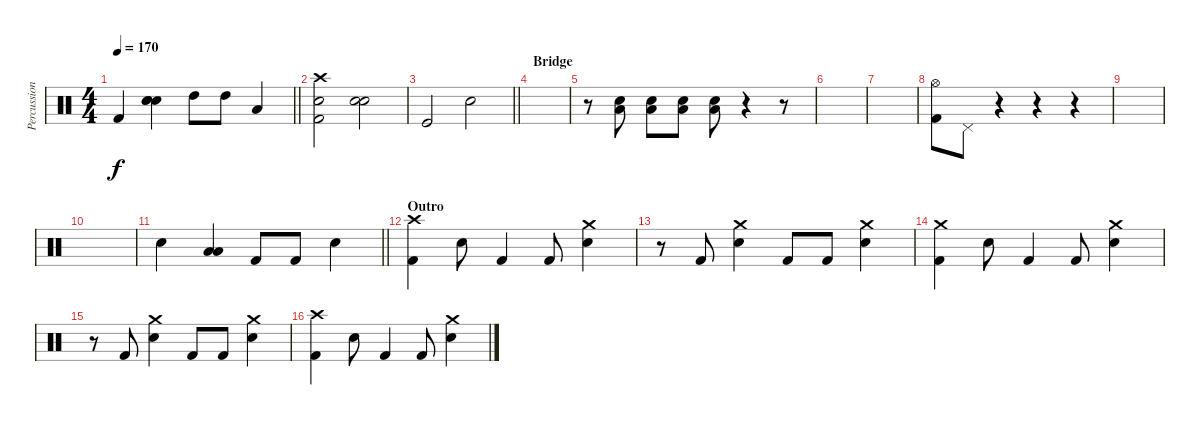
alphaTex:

\track ("Percussion" "Percussion") {instrument percussion}
\staff {score}
\articulation defaults
\ts (4 4)
\tempo 170
\clef neutral
\barLineRight lightlight
\ks c "Kick (hit) 2".4{dy f}
("Snare (hit) 2" "Snare (hit) 2" "Snare (hit) 2").4 "High Tom (hit)".8 "High Tom (hit)".8 "Low Tom (hit)".4 |
("Snare (hit) 2" "Crash high (hit)" "Kick (hit) 2").2 ("Snare (hit) 2" "Snare (hit) 2").2 |
\barLineRight lightlight "Kick (hit)".2 "Snare (hit) 2".2
|
\section ("" "Bridge")
|
r.8 ("Snare (hit) 2" "Low Floor Tom (hit)").8 ("Snare (hit) 2" "Low Floor Tom (hit)").8 ("Snare (hit) 2" "Low Floor Tom (hit)").8 ("Snare (hit) 2" "Low Floor Tom (hit)").8 r.4 r.8 |
|
|
("Kick (hit) 2" "Hi-Hat (open)").8 "Pedal Hi-Hat (hit)".8 r.4 r.4 r.4 |
|
|
\barLineRight lightlight "Snare (hit) 2".4
("Low Tom (hit)" "Low Tom (hit)").4 "Kick (hit) 2".8 "Kick (hit) 2".8 "Snare (hit) 2".4 |
\section ("" "Outro")
("Crash high (hit)" "Kick (hit) 2").4 "Snare (hit) 2".8 "Kick (hit) 2".4 "Kick (hit) 2".8 ("Snare (hit) 2" "Crash medium (hit)").4 |
r.8 "Kick (hit) 2".8 ("Snare (hit) 2" "Crash medium (hit)").4 "Kick (hit) 2".8 "Kick (hit) 2".8 ("Snare (hit) 2" "Crash medium (hit)").4 |
("Crash medium (hit)" "Kick (hit) 2").4 "Snare (hit) 2".8 "Kick (hit) 2".4 "Kick (hit) 2".8 ("Snare (hit) 2" "Crash medium (hit)").4 |
r.8 "Kick (hit) 2".8 ("Snare (hit) 2" "Crash medium (hit)").4 "Kick (hit) 2".8 "Kick (hit) 2".8 ("Snare (hit) 2" "Crash medium (hit)").4 |
("Crash high (hit)" "Kick (hit) 2").4 "Snare (hit) 2".8 "Kick (hit) 2".4 "Kick (hit) 2".8 ("Snare (hit) 2" "Crash medium (hit)").4
